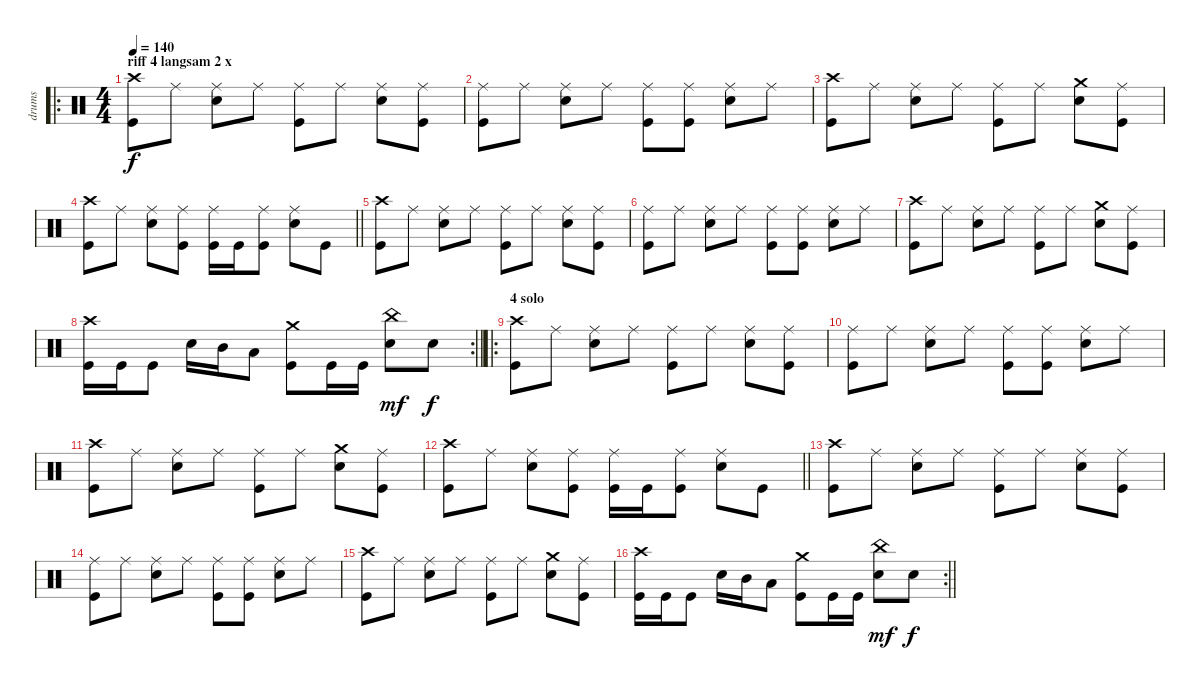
\track ("drums" "drums") {instrument percussion}
\staff {score}
\articulation defaults
\ro
\ts (4 4)
\section ("" "riff 4 langsam 2 x")
\tempo 140
\clef neutral
\ks c
("Crash high (hit)" "Kick (hit)").8{dy f} "Ride (middle)".8 ("Ride (middle)" "Snare (hit) 2").8 "Ride (middle)".8 ("Ride (middle)" "Kick (hit)").8 "Ride (middle)".8 ("Ride (middle)" "Snare (hit) 2").8 ("Ride (middle)" "Kick (hit)").8 |
("Ride (middle)" "Kick (hit)").8 "Ride (middle)".8 ("Ride (middle)" "Snare (hit) 2").8 "Ride (middle)".8 ("Ride (middle)" "Kick (hit)").8 ("Ride (middle)" "Kick (hit)").8 ("Ride (middle)" "Snare (hit) 2").8 "Ride (middle)".8 |
("Crash high (hit)" "Kick (hit)").8 "Ride (middle)".8 ("Ride (middle)" "Snare (hit) 2").8 "Ride (middle)".8 ("Ride (middle)" "Kick (hit)").8 "Ride (middle)".8 ("Crash medium (hit)" "Snare (hit) 2").8 ("Ride (middle)" "Kick (hit)").8 |
\barLineRight lightlight
("Crash high (hit)" "Kick (hit)").8 "Ride (middle)".8 ("Ride (middle)" "Snare (hit) 2").8 ("Ride (middle)" "Kick (hit)").8 ("Ride (middle)" "Kick (hit)").16 "Kick (hit)".16 ("Ride (middle)" "Kick (hit)").8 ("Ride (middle)" "Snare (hit) 2").8 "Kick (hit)".8 |
("Crash high (hit)" "Kick (hit)").8 "Ride (middle)".8 ("Ride (middle)" "Snare (hit) 2").8 "Ride (middle)".8 ("Ride (middle)" "Kick (hit)").8 "Ride (middle)".8 ("Ride (middle)" "Snare (hit) 2").8 ("Ride (middle)" "Kick (hit)").8 |
("Ride (middle)" "Kick (hit)").8 "Ride (middle)".8 ("Ride (middle)" "Snare (hit) 2").8 "Ride (middle)".8 ("Ride (middle)" "Kick (hit)").8 ("Ride (middle)" "Kick (hit)").8 ("Ride (middle)" "Snare (hit) 2").8 "Ride (middle)".8 |
("Crash high (hit)" "Kick (hit)").8 "Ride (middle)".8 ("Ride (middle)" "Snare (hit) 2").8 "Ride (middle)".8 ("Ride (middle)" "Kick (hit)").8 "Ride (middle)".8 ("Crash medium (hit)" "Snare (hit) 2").8 ("Ride (middle)" "Kick (hit)").8 |
\rc 2
\barLineRight lightlight
("Crash high (hit)" "Kick (hit)").16 "Kick (hit)".16 "Kick (hit)".8 "Snare (hit) 2".16 "Mid Tom (hit)".16 "Low Tom (hit)".8 ("Crash medium (hit)" "Kick (hit)").8 "Kick (hit)".16 "Kick (hit)".16 ("China (hit)" "Snare (hit) 2").8{dy mf} "Snare (hit) 2".8{dy f} |
\ro
\section ("" "4 solo")
("Crash high (hit)" "Kick (hit)").8 "Ride (middle)".8 ("Ride (middle)" "Snare (hit) 2").8 "Ride (middle)".8 ("Ride (middle)" "Kick (hit)").8 "Ride (middle)".8 ("Ride (middle)" "Snare (hit) 2").8 ("Ride (middle)" "Kick (hit)").8 |
("Ride (middle)" "Kick (hit)").8 "Ride (middle)".8 ("Ride (middle)" "Snare (hit) 2").8 "Ride (middle)".8 ("Ride (middle)" "Kick (hit)").8 ("Ride (middle)" "Kick (hit)").8 ("Ride (middle)" "Snare (hit) 2").8 "Ride (middle)".8 |
("Crash high (hit)" "Kick (hit)").8 "Ride (middle)".8 ("Ride (middle)" "Snare (hit) 2").8 "Ride (middle)".8 ("Ride (middle)" "Kick (hit)").8 "Ride (middle)".8 ("Crash medium (hit)" "Snare (hit) 2").8 ("Ride (middle)" "Kick (hit)").8 |
\barLineRight lightlight
("Crash high (hit)" "Kick (hit)").8 "Ride (middle)".8 ("Ride (middle)" "Snare (hit) 2").8 ("Ride (middle)" "Kick (hit)").8 ("Ride (middle)" "Kick (hit)").16 "Kick (hit)".16 ("Ride (middle)" "Kick (hit)").8 ("Ride (middle)" "Snare (hit) 2").8 "Kick (hit)".8 |
("Crash high (hit)" "Kick (hit)").8 "Ride (middle)".8 ("Ride (middle)" "Snare (hit) 2").8 "Ride (middle)".8 ("Ride (middle)" "Kick (hit)").8 "Ride (middle)".8 ("Ride (middle)" "Snare (hit) 2").8 ("Ride (middle)" "Kick (hit)").8 |
("Ride (middle)" "Kick (hit)").8 "Ride (middle)".8 ("Ride (middle)" "Snare (hit) 2").8 "Ride (middle)".8 ("Ride (middle)" "Kick (hit)").8 ("Ride (middle)" "Kick (hit)").8 ("Ride (middle)" "Snare (hit) 2").8 "Ride (middle)".8 |
("Crash high (hit)" "Kick (hit)").8 "Ride (middle)".8 ("Ride (middle)" "Snare (hit) 2").8 "Ride (middle)".8 ("Ride (middle)" "Kick (hit)").8 "Ride (middle)".8 ("Crash medium (hit)" "Snare (hit) 2").8 ("Ride (middle)" "Kick (hit)").8 |
\rc 2
\barLineRight lightlight
("Crash high (hit)" "Kick (hit)").16 "Kick (hit)".16 "Kick (hit)".8 "Snare (hit) 2".16 "Mid Tom (hit)".16 "Low Tom (hit)".8 ("Crash medium (hit)" "Kick (hit)").8 "Kick (hit)".16 "Kick (hit)".16 ("China (hit)" "Snare (hit) 2").8{dy mf} "Snare (hit) 2".8{dy f}
